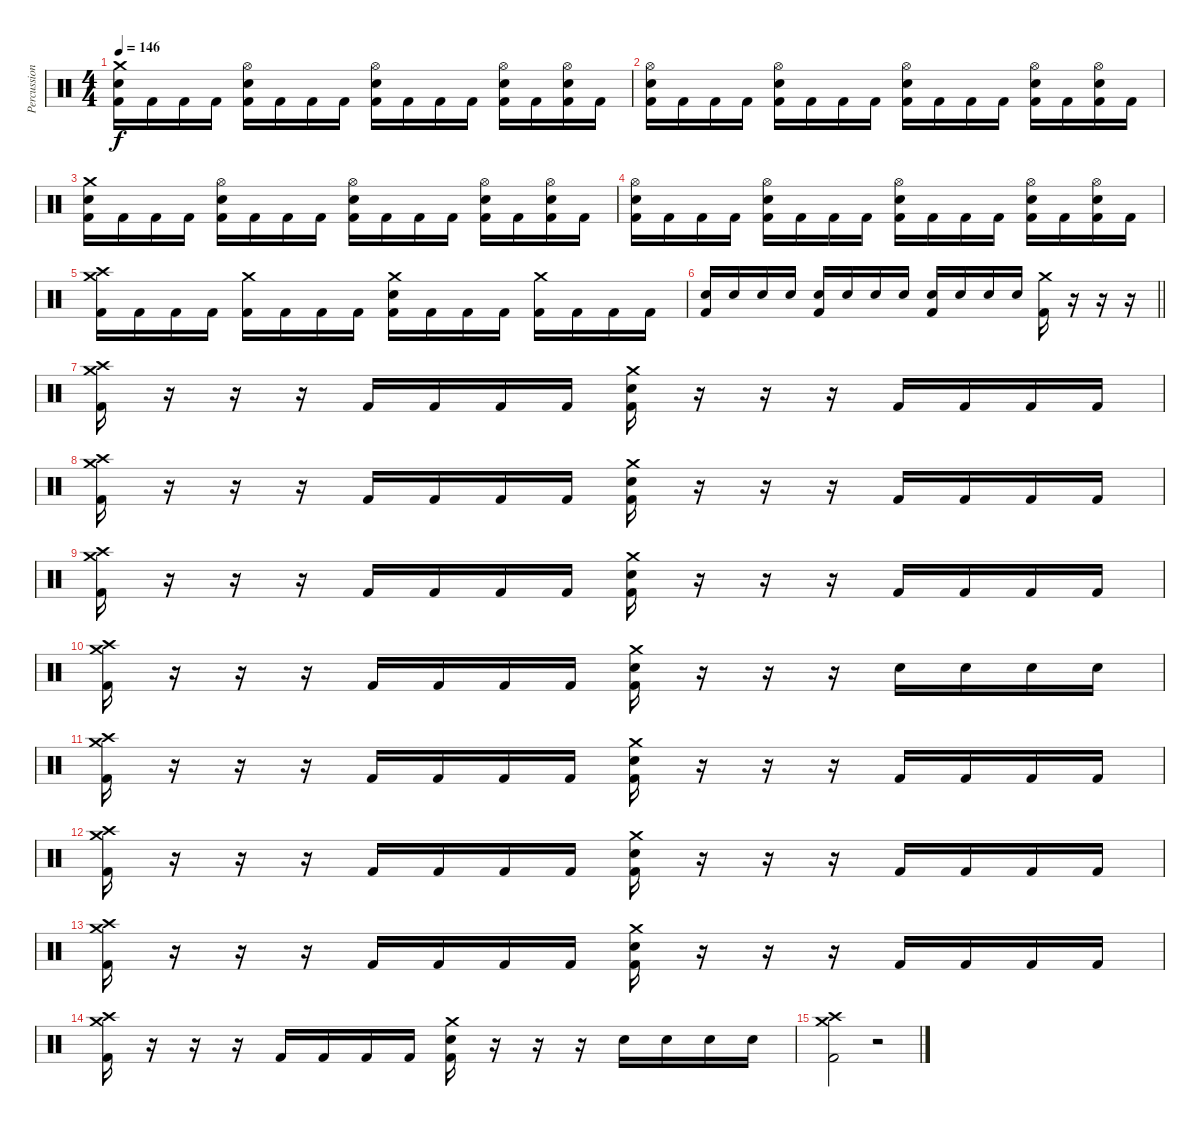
\track ("Percussion" "Percussion") {instrument percussion}
\staff {score}
\articulation defaults
\ts (4 4)
\tempo 146
\clef neutral
\ks c
("Crash medium (hit)" "Snare (hit) 2" "Kick (hit) 2").16{dy f} "Kick (hit) 2".16 "Kick (hit) 2".16 "Kick (hit) 2".16 ("Hi-Hat (open)" "Snare (hit) 2" "Kick (hit) 2").16 "Kick (hit) 2".16 "Kick (hit) 2".16 "Kick (hit) 2".16 ("Hi-Hat (open)" "Snare (hit) 2" "Kick (hit) 2").16 "Kick (hit) 2".16 "Kick (hit) 2".16 "Kick (hit) 2".16 ("Hi-Hat (open)" "Snare (hit) 2" "Kick (hit) 2").16 "Kick (hit) 2".16 ("Hi-Hat (open)" "Snare (hit) 2" "Kick (hit) 2").16 "Kick (hit) 2".16 |
("Hi-Hat (open)" "Snare (hit) 2" "Kick (hit) 2").16 "Kick (hit) 2".16 "Kick (hit) 2".16 "Kick (hit) 2".16 ("Hi-Hat (open)" "Snare (hit) 2" "Kick (hit) 2").16 "Kick (hit) 2".16 "Kick (hit) 2".16 "Kick (hit) 2".16 ("Hi-Hat (open)" "Snare (hit) 2" "Kick (hit) 2").16 "Kick (hit) 2".16 "Kick (hit) 2".16 "Kick (hit) 2".16 ("Hi-Hat (open)" "Snare (hit) 2" "Kick (hit) 2").16 "Kick (hit) 2".16 ("Hi-Hat (open)" "Snare (hit) 2" "Kick (hit) 2").16 "Kick (hit) 2".16 |
("Crash medium (hit)" "Snare (hit) 2" "Kick (hit) 2").16 "Kick (hit) 2".16 "Kick (hit) 2".16 "Kick (hit) 2".16 ("Hi-Hat (open)" "Snare (hit) 2" "Kick (hit) 2").16 "Kick (hit) 2".16 "Kick (hit) 2".16 "Kick (hit) 2".16 ("Hi-Hat (open)" "Snare (hit) 2" "Kick (hit) 2").16 "Kick (hit) 2".16 "Kick (hit) 2".16 "Kick (hit) 2".16 ("Hi-Hat (open)" "Snare (hit) 2" "Kick (hit) 2").16 "Kick (hit) 2".16 ("Hi-Hat (open)" "Snare (hit) 2" "Kick (hit) 2").16 "Kick (hit) 2".16 |
("Hi-Hat (open)" "Snare (hit) 2" "Kick (hit) 2").16 "Kick (hit) 2".16 "Kick (hit) 2".16 "Kick (hit) 2".16 ("Hi-Hat (open)" "Snare (hit) 2" "Kick (hit) 2").16 "Kick (hit) 2".16 "Kick (hit) 2".16 "Kick (hit) 2".16 ("Hi-Hat (open)" "Snare (hit) 2" "Kick (hit) 2").16 "Kick (hit) 2".16 "Kick (hit) 2".16 "Kick (hit) 2".16 ("Hi-Hat (open)" "Snare (hit) 2" "Kick (hit) 2").16 "Kick (hit) 2".16 ("Hi-Hat (open)" "Snare (hit) 2" "Kick (hit) 2").16 "Kick (hit) 2".16 |
("Crash high (hit)" "Crash medium (hit)" "Kick (hit) 2").16 "Kick (hit) 2".16 "Kick (hit) 2".16 "Kick (hit) 2".16 ("Crash medium (hit)" "Kick (hit) 2").16 "Kick (hit) 2".16 "Kick (hit) 2".16 "Kick (hit) 2".16 ("Crash medium (hit)" "Snare (hit) 2" "Kick (hit) 2").16 "Kick (hit) 2".16 "Kick (hit) 2".16 "Kick (hit) 2".16 ("Crash medium (hit)" "Kick (hit) 2").16 "Kick (hit) 2".16 "Kick (hit) 2".16 "Kick (hit) 2".16 |
\barLineRight lightlight
("Snare (hit) 2" "Kick (hit) 2").16 "Snare (hit) 2".16 "Snare (hit) 2".16 "Snare (hit) 2".16 ("Snare (hit) 2" "Kick (hit) 2").16 "Snare (hit) 2".16 "Snare (hit) 2".16 "Snare (hit) 2".16 ("Snare (hit) 2" "Kick (hit) 2").16 "Snare (hit) 2".16 "Snare (hit) 2".16 "Snare (hit) 2".16 ("Crash medium (hit)" "Kick (hit) 2").16 r.16 r.16 r.16 |
("Crash high (hit)" "Crash medium (hit)" "Kick (hit) 2").16 r.16 r.16 r.16 "Kick (hit) 2".16 "Kick (hit) 2".16 "Kick (hit) 2".16 "Kick (hit) 2".16 ("Crash medium (hit)" "Snare (hit) 2" "Kick (hit) 2").16 r.16 r.16 r.16 "Kick (hit) 2".16 "Kick (hit) 2".16 "Kick (hit) 2".16 "Kick (hit) 2".16 |
("Crash high (hit)" "Crash medium (hit)" "Kick (hit) 2").16 r.16 r.16 r.16 "Kick (hit) 2".16 "Kick (hit) 2".16 "Kick (hit) 2".16 "Kick (hit) 2".16 ("Crash medium (hit)" "Snare (hit) 2" "Kick (hit) 2").16 r.16 r.16 r.16 "Kick (hit) 2".16 "Kick (hit) 2".16 "Kick (hit) 2".16 "Kick (hit) 2".16 |
("Crash high (hit)" "Crash medium (hit)" "Kick (hit) 2").16 r.16 r.16 r.16 "Kick (hit) 2".16 "Kick (hit) 2".16 "Kick (hit) 2".16 "Kick (hit) 2".16 ("Crash medium (hit)" "Snare (hit) 2" "Kick (hit) 2").16 r.16 r.16 r.16 "Kick (hit) 2".16 "Kick (hit) 2".16 "Kick (hit) 2".16 "Kick (hit) 2".16 |
("Crash high (hit)" "Crash medium (hit)" "Kick (hit) 2").16 r.16 r.16 r.16 "Kick (hit) 2".16 "Kick (hit) 2".16 "Kick (hit) 2".16 "Kick (hit) 2".16 ("Crash medium (hit)" "Snare (hit) 2" "Kick (hit) 2").16 r.16 r.16 r.16 "Snare (hit) 2".16 "Snare (hit) 2".16 "Snare (hit) 2".16 "Snare (hit) 2".16 |
("Crash high (hit)" "Crash medium (hit)" "Kick (hit) 2").16 r.16 r.16 r.16 "Kick (hit) 2".16 "Kick (hit) 2".16 "Kick (hit) 2".16 "Kick (hit) 2".16 ("Crash medium (hit)" "Snare (hit) 2" "Kick (hit) 2").16 r.16 r.16 r.16 "Kick (hit) 2".16 "Kick (hit) 2".16 "Kick (hit) 2".16 "Kick (hit) 2".16 |
("Crash high (hit)" "Crash medium (hit)" "Kick (hit) 2").16 r.16 r.16 r.16 "Kick (hit) 2".16 "Kick (hit) 2".16 "Kick (hit) 2".16 "Kick (hit) 2".16 ("Crash medium (hit)" "Snare (hit) 2" "Kick (hit) 2").16 r.16 r.16 r.16 "Kick (hit) 2".16 "Kick (hit) 2".16 "Kick (hit) 2".16 "Kick (hit) 2".16 |
("Crash high (hit)" "Crash medium (hit)" "Kick (hit) 2").16 r.16 r.16 r.16 "Kick (hit) 2".16 "Kick (hit) 2".16 "Kick (hit) 2".16 "Kick (hit) 2".16 ("Crash medium (hit)" "Snare (hit) 2" "Kick (hit) 2").16 r.16 r.16 r.16 "Kick (hit) 2".16 "Kick (hit) 2".16 "Kick (hit) 2".16 "Kick (hit) 2".16 |
("Crash high (hit)" "Crash medium (hit)" "Kick (hit) 2").16 r.16 r.16 r.16 "Kick (hit) 2".16 "Kick (hit) 2".16 "Kick (hit) 2".16 "Kick (hit) 2".16 ("Crash medium (hit)" "Snare (hit) 2" "Kick (hit) 2").16 r.16 r.16 r.16 "Snare (hit) 2".16 "Snare (hit) 2".16 "Snare (hit) 2".16 "Snare (hit) 2".16 |
("Crash high (hit)" "Crash medium (hit)" "Kick (hit) 2").2 r.2
